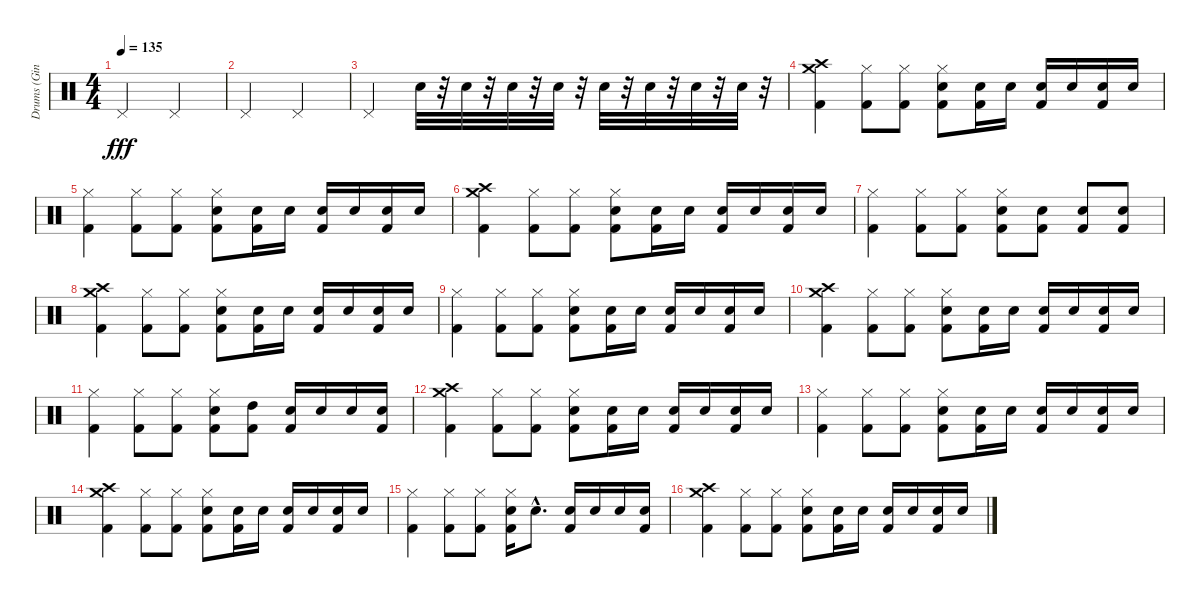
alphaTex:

\track ("Drums (Ginger Fish)" "Drums (Gin") {instrument percussion}
\staff {score}
\articulation defaults
\ts (4 4)
\tempo 135
\clef neutral
\ks c "Pedal Hi-Hat (hit)".2{dy fff} "Pedal Hi-Hat (hit)".2
|
"Pedal Hi-Hat (hit)".2 "Pedal Hi-Hat (hit)".2 |
"Pedal Hi-Hat (hit)".2 "Electric Snare (hit)".32 r.32 "Electric Snare (hit)".32 r.32 "Electric Snare (hit)".32 r.32 "Electric Snare (hit)".32 r.32 "Electric Snare (hit)".32 r.32 "Electric Snare (hit)".32 r.32 "Electric Snare (hit)".32 r.32 "Electric Snare (hit)".32 r.32 |
("Crash high (hit)" "Crash medium (hit)" "Kick (hit) 2").4 ("Hi-Hat (closed)" "Kick (hit) 2").8 ("Hi-Hat (closed)" "Kick (hit) 2").8 ("Hi-Hat (closed)" "Electric Snare (hit)" "Kick (hit) 2").8 ("Electric Snare (hit)" "Kick (hit) 2").16 "Electric Snare (hit)".16 ("Electric Snare (hit)" "Kick (hit) 2").16 "Electric Snare (hit)".16 ("Electric Snare (hit)" "Kick (hit) 2").16 "Electric Snare (hit)".16 |
("Hi-Hat (closed)" "Kick (hit) 2").4 ("Hi-Hat (closed)" "Kick (hit) 2").8 ("Hi-Hat (closed)" "Kick (hit) 2").8 ("Hi-Hat (closed)" "Electric Snare (hit)" "Kick (hit) 2").8 ("Electric Snare (hit)" "Kick (hit) 2").16 "Electric Snare (hit)".16 ("Electric Snare (hit)" "Kick (hit) 2").16 "Electric Snare (hit)".16 ("Electric Snare (hit)" "Kick (hit) 2").16 "Electric Snare (hit)".16 |
("Crash high (hit)" "Crash medium (hit)" "Kick (hit) 2").4 ("Hi-Hat (closed)" "Kick (hit) 2").8 ("Hi-Hat (closed)" "Kick (hit) 2").8 ("Hi-Hat (closed)" "Electric Snare (hit)" "Kick (hit) 2").8 ("Electric Snare (hit)" "Kick (hit) 2").16 "Electric Snare (hit)".16 ("Electric Snare (hit)" "Kick (hit) 2").16 "Electric Snare (hit)".16 ("Electric Snare (hit)" "Kick (hit) 2").16 "Electric Snare (hit)".16 |
("Hi-Hat (closed)" "Kick (hit) 2").4 ("Hi-Hat (closed)" "Kick (hit) 2").8 ("Hi-Hat (closed)" "Kick (hit) 2").8 ("Hi-Hat (closed)" "Electric Snare (hit)" "Kick (hit) 2").8 ("Electric Snare (hit)" "Kick (hit) 2").8 ("Electric Snare (hit)" "Kick (hit) 2").8 ("Electric Snare (hit)" "Kick (hit) 2").8 |
("Crash high (hit)" "Crash medium (hit)" "Kick (hit) 2").4 ("Hi-Hat (closed)" "Kick (hit) 2").8 ("Hi-Hat (closed)" "Kick (hit) 2").8 ("Hi-Hat (closed)" "Electric Snare (hit)" "Kick (hit) 2").8 ("Electric Snare (hit)" "Kick (hit) 2").16 "Electric Snare (hit)".16 ("Electric Snare (hit)" "Kick (hit) 2").16 "Electric Snare (hit)".16 ("Electric Snare (hit)" "Kick (hit) 2").16 "Electric Snare (hit)".16 |
("Hi-Hat (closed)" "Kick (hit) 2").4 ("Hi-Hat (closed)" "Kick (hit) 2").8 ("Hi-Hat (closed)" "Kick (hit) 2").8 ("Hi-Hat (closed)" "Electric Snare (hit)" "Kick (hit) 2").8 ("Electric Snare (hit)" "Kick (hit) 2").16 "Electric Snare (hit)".16 ("Electric Snare (hit)" "Kick (hit) 2").16 "Electric Snare (hit)".16 ("Electric Snare (hit)" "Kick (hit) 2").16 "Electric Snare (hit)".16 |
("Crash high (hit)" "Crash medium (hit)" "Kick (hit) 2").4 ("Hi-Hat (closed)" "Kick (hit) 2").8 ("Hi-Hat (closed)" "Kick (hit) 2").8 ("Hi-Hat (closed)" "Electric Snare (hit)" "Kick (hit) 2").8 ("Electric Snare (hit)" "Kick (hit) 2").16 "Electric Snare (hit)".16 ("Electric Snare (hit)" "Kick (hit) 2").16 "Electric Snare (hit)".16 ("Electric Snare (hit)" "Kick (hit) 2").16 "Electric Snare (hit)".16 |
("Hi-Hat (closed)" "Kick (hit) 2").4 ("Hi-Hat (closed)" "Kick (hit) 2").8 ("Hi-Hat (closed)" "Kick (hit) 2").8 ("Hi-Hat (closed)" "Electric Snare (hit)" "Kick (hit) 2").8 ("High Tom (hit)" "Kick (hit) 2").8 ("Electric Snare (hit)" "Kick (hit) 2").16 "Electric Snare (hit)".16 "Electric Snare (hit)".16 ("Electric Snare (hit)" "Kick (hit) 2").16 |
("Crash high (hit)" "Crash medium (hit)" "Kick (hit) 2").4 ("Hi-Hat (closed)" "Kick (hit) 2").8 ("Hi-Hat (closed)" "Kick (hit) 2").8 ("Hi-Hat (closed)" "Electric Snare (hit)" "Kick (hit) 2").8 ("Electric Snare (hit)" "Kick (hit) 2").16 "Electric Snare (hit)".16 ("Electric Snare (hit)" "Kick (hit) 2").16 "Electric Snare (hit)".16 ("Electric Snare (hit)" "Kick (hit) 2").16 "Electric Snare (hit)".16 |
("Hi-Hat (closed)" "Kick (hit) 2").4 ("Hi-Hat (closed)" "Kick (hit) 2").8 ("Hi-Hat (closed)" "Kick (hit) 2").8 ("Hi-Hat (closed)" "Electric Snare (hit)" "Kick (hit) 2").8 ("Electric Snare (hit)" "Kick (hit) 2").16 "Electric Snare (hit)".16 ("Electric Snare (hit)" "Kick (hit) 2").16 "Electric Snare (hit)".16 ("Electric Snare (hit)" "Kick (hit) 2").16 "Electric Snare (hit)".16 |
("Crash high (hit)" "Crash medium (hit)" "Kick (hit) 2").4 ("Hi-Hat (closed)" "Kick (hit) 2").8 ("Hi-Hat (closed)" "Kick (hit) 2").8 ("Hi-Hat (closed)" "Electric Snare (hit)" "Kick (hit) 2").8 ("Electric Snare (hit)" "Kick (hit) 2").16 "Electric Snare (hit)".16 ("Electric Snare (hit)" "Kick (hit) 2").16 "Electric Snare (hit)".16 ("Electric Snare (hit)" "Kick (hit) 2").16 "Electric Snare (hit)".16 |
("Hi-Hat (closed)" "Kick (hit) 2").4 ("Hi-Hat (closed)" "Kick (hit) 2").8 ("Hi-Hat (closed)" "Kick (hit) 2").8 ("Hi-Hat (closed)" "Electric Snare (hit)" "Kick (hit) 2").16 "Electric Snare (hit)"{hac}.8{d} ("Electric Snare (hit)" "Kick (hit) 2").16 "Electric Snare (hit)".16 "Electric Snare (hit)".16 ("Electric Snare (hit)" "Kick (hit) 2").16 |
("Crash high (hit)" "Crash medium (hit)" "Kick (hit) 2").4 ("Hi-Hat (closed)" "Kick (hit) 2").8 ("Hi-Hat (closed)" "Kick (hit) 2").8 ("Hi-Hat (closed)" "Electric Snare (hit)" "Kick (hit) 2").8 ("Electric Snare (hit)" "Kick (hit) 2").16 "Electric Snare (hit)".16 ("Electric Snare (hit)" "Kick (hit) 2").16 "Electric Snare (hit)".16 ("Electric Snare (hit)" "Kick (hit) 2").16 "Electric Snare (hit)".16
